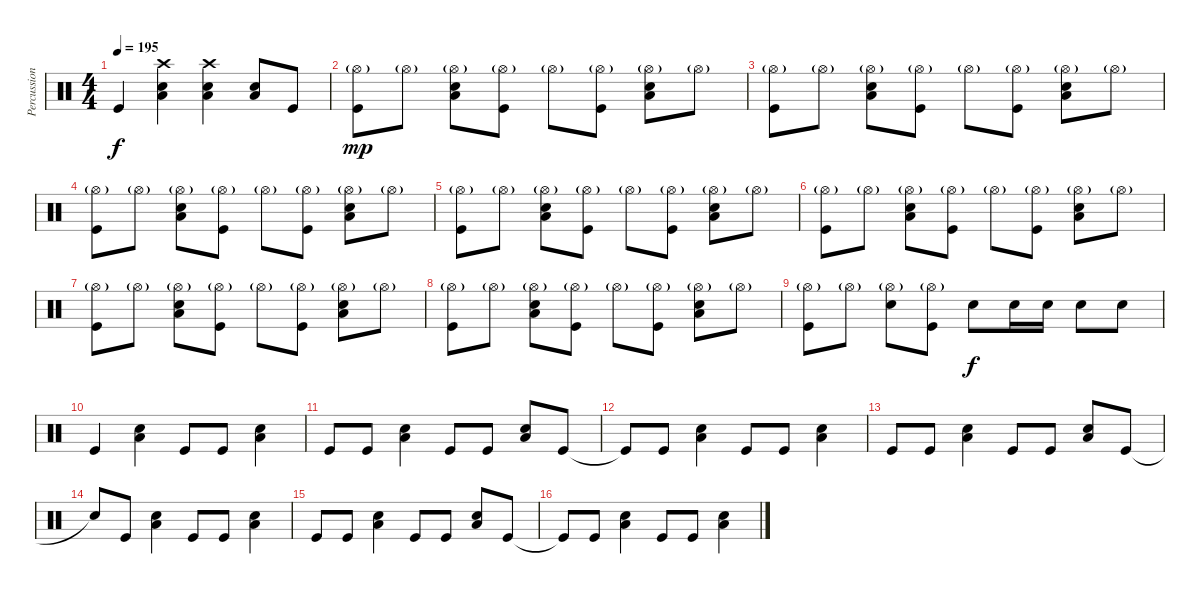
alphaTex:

\track ("Percussion" "Percussion") {instrument percussion}
\staff {score}
\articulation defaults
\ts (4 4)
\tempo 195
\clef neutral
\ks c "Kick (hit)".4{dy f}
("Crash high (hit)" "Low Tom (hit)" "Snare (hit) 2").4 ("Crash high (hit)" "Low Tom (hit)" "Snare (hit) 2").4 ("Low Tom (hit)" "Snare (hit) 2").8 "Kick (hit)".8 |
("Hi-Hat (open)"{g} "Kick (hit)").8{dy mp} "Hi-Hat (open)"{g}.8 ("Hi-Hat (open)"{g} "Low Tom (hit)" "Snare (hit) 2").8 ("Hi-Hat (open)"{g} "Kick (hit)").8 "Hi-Hat (open)"{g}.8 ("Hi-Hat (open)"{g} "Kick (hit)").8 ("Hi-Hat (open)"{g} "Low Tom (hit)" "Snare (hit) 2").8 "Hi-Hat (open)"{g}.8 |
("Hi-Hat (open)"{g} "Kick (hit)").8 "Hi-Hat (open)"{g}.8 ("Hi-Hat (open)"{g} "Low Tom (hit)" "Snare (hit) 2").8 ("Hi-Hat (open)"{g} "Kick (hit)").8 "Hi-Hat (open)"{g}.8 ("Hi-Hat (open)"{g} "Kick (hit)").8 ("Hi-Hat (open)"{g} "Low Tom (hit)" "Snare (hit) 2").8 "Hi-Hat (open)"{g}.8 |
("Hi-Hat (open)"{g} "Kick (hit)").8 "Hi-Hat (open)"{g}.8 ("Hi-Hat (open)"{g} "Low Tom (hit)" "Snare (hit) 2").8 ("Hi-Hat (open)"{g} "Kick (hit)").8 "Hi-Hat (open)"{g}.8 ("Hi-Hat (open)"{g} "Kick (hit)").8 ("Hi-Hat (open)"{g} "Low Tom (hit)" "Snare (hit) 2").8 "Hi-Hat (open)"{g}.8 |
("Hi-Hat (open)"{g} "Kick (hit)").8 "Hi-Hat (open)"{g}.8 ("Hi-Hat (open)"{g} "Low Tom (hit)" "Snare (hit) 2").8 ("Hi-Hat (open)"{g} "Kick (hit)").8 "Hi-Hat (open)"{g}.8 ("Hi-Hat (open)"{g} "Kick (hit)").8 ("Hi-Hat (open)"{g} "Low Tom (hit)" "Snare (hit) 2").8 "Hi-Hat (open)"{g}.8 |
("Hi-Hat (open)"{g} "Kick (hit)").8 "Hi-Hat (open)"{g}.8 ("Hi-Hat (open)"{g} "Low Tom (hit)" "Snare (hit) 2").8 ("Hi-Hat (open)"{g} "Kick (hit)").8 "Hi-Hat (open)"{g}.8 ("Hi-Hat (open)"{g} "Kick (hit)").8 ("Hi-Hat (open)"{g} "Low Tom (hit)" "Snare (hit) 2").8 "Hi-Hat (open)"{g}.8 |
("Hi-Hat (open)"{g} "Kick (hit)").8 "Hi-Hat (open)"{g}.8 ("Hi-Hat (open)"{g} "Low Tom (hit)" "Snare (hit) 2").8 ("Hi-Hat (open)"{g} "Kick (hit)").8 "Hi-Hat (open)"{g}.8 ("Hi-Hat (open)"{g} "Kick (hit)").8 ("Hi-Hat (open)"{g} "Low Tom (hit)" "Snare (hit) 2").8 "Hi-Hat (open)"{g}.8 |
("Hi-Hat (open)"{g} "Kick (hit)").8 "Hi-Hat (open)"{g}.8 ("Hi-Hat (open)"{g} "Low Tom (hit)" "Snare (hit) 2").8 ("Hi-Hat (open)"{g} "Kick (hit)").8 "Hi-Hat (open)"{g}.8 ("Hi-Hat (open)"{g} "Kick (hit)").8 ("Hi-Hat (open)"{g} "Low Tom (hit)" "Snare (hit) 2").8 "Hi-Hat (open)"{g}.8 |
("Hi-Hat (open)"{g} "Kick (hit)").8 "Hi-Hat (open)"{g}.8 ("Hi-Hat (open)"{g} "Snare (hit) 2").8 ("Hi-Hat (open)"{g} "Kick (hit)").8 "Snare (hit) 2".8{dy f} "Snare (hit) 2".16 "Snare (hit) 2".16 "Snare (hit) 2".8 "Snare (hit) 2".8 |
"Kick (hit)".4 ("Low Tom (hit)" "Snare (hit) 2").4 "Kick (hit)".8 "Kick (hit)".8 ("Low Tom (hit)" "Snare (hit) 2").4 |
"Kick (hit)".8 "Kick (hit)".8 ("Low Tom (hit)" "Snare (hit) 2").4 "Kick (hit)".8 "Kick (hit)".8 ("Low Tom (hit)" "Snare (hit) 2").8 "Kick (hit)".8 |
"Kick (hit)"{t}.8 "Kick (hit)".8 ("Low Tom (hit)" "Snare (hit) 2").4 "Kick (hit)".8 "Kick (hit)".8 ("Low Tom (hit)" "Snare (hit) 2").4 |
"Kick (hit)".8 "Kick (hit)".8 ("Low Tom (hit)" "Snare (hit) 2").4 "Kick (hit)".8 "Kick (hit)".8 ("Low Tom (hit)" "Snare (hit) 2").8 "Kick (hit)".8 |
"Snare (hit)"{t}.8 "Kick (hit)".8 ("Low Tom (hit)" "Snare (hit) 2").4 "Kick (hit)".8 "Kick (hit)".8 ("Low Tom (hit)" "Snare (hit) 2").4 |
"Kick (hit)".8 "Kick (hit)".8 ("Low Tom (hit)" "Snare (hit) 2").4 "Kick (hit)".8 "Kick (hit)".8 ("Low Tom (hit)" "Snare (hit) 2").8 "Kick (hit)".8 |
"Kick (hit)"{t}.8 "Kick (hit)".8 ("Low Tom (hit)" "Snare (hit) 2").4 "Kick (hit)".8 "Kick (hit)".8 ("Low Tom (hit)" "Snare (hit) 2").4
